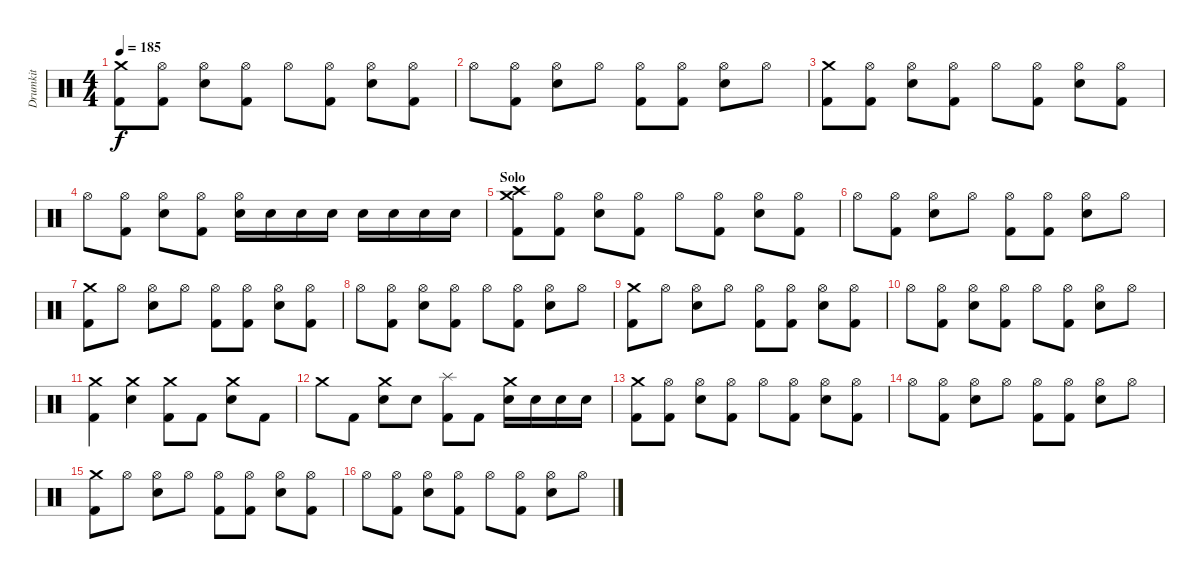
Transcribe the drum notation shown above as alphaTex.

\track ("Drumkit" "Drumkit") {instrument percussion}
\staff {score}
\articulation defaults
\ts (4 4)
\tempo 185
\clef neutral
\ks c
("Crash medium (hit)" "Kick (hit) 2").8{dy f} ("Hi-Hat (open)" "Kick (hit) 2").8 ("Hi-Hat (open)" "Snare (hit) 2").8 ("Hi-Hat (open)" "Kick (hit) 2").8 "Hi-Hat (open)".8 ("Hi-Hat (open)" "Kick (hit) 2").8 ("Hi-Hat (open)" "Snare (hit) 2").8 ("Hi-Hat (open)" "Kick (hit) 2").8 |
"Hi-Hat (open)".8 ("Hi-Hat (open)" "Kick (hit) 2").8 ("Hi-Hat (open)" "Snare (hit) 2").8 "Hi-Hat (open)".8 ("Hi-Hat (open)" "Kick (hit) 2").8 ("Hi-Hat (open)" "Kick (hit) 2").8 ("Hi-Hat (open)" "Snare (hit) 2").8 "Hi-Hat (open)".8 |
("Crash medium (hit)" "Kick (hit) 2").8 ("Hi-Hat (open)" "Kick (hit) 2").8 ("Hi-Hat (open)" "Snare (hit) 2").8 ("Hi-Hat (open)" "Kick (hit) 2").8 "Hi-Hat (open)".8 ("Hi-Hat (open)" "Kick (hit) 2").8 ("Hi-Hat (open)" "Snare (hit) 2").8 ("Hi-Hat (open)" "Kick (hit) 2").8 |
"Hi-Hat (open)".8 ("Hi-Hat (open)" "Kick (hit) 2").8 ("Hi-Hat (open)" "Snare (hit) 2").8 ("Hi-Hat (open)" "Kick (hit) 2").8 ("Hi-Hat (open)" "Snare (hit) 2").16 "Snare (hit) 2".16 "Snare (hit) 2".16 "Snare (hit) 2".16 "Snare (hit) 2".16 "Snare (hit) 2".16 "Snare (hit) 2".16 "Snare (hit) 2".16 |
\section ("" "Solo")
("Crash medium (hit)" "Crash high (hit)" "Kick (hit) 2").8 ("Hi-Hat (open)" "Kick (hit) 2").8 ("Hi-Hat (open)" "Snare (hit) 2").8 ("Hi-Hat (open)" "Kick (hit) 2").8 "Hi-Hat (open)".8 ("Hi-Hat (open)" "Kick (hit) 2").8 ("Hi-Hat (open)" "Snare (hit) 2").8 ("Hi-Hat (open)" "Kick (hit) 2").8 |
"Hi-Hat (open)".8 ("Hi-Hat (open)" "Kick (hit) 2").8 ("Hi-Hat (open)" "Snare (hit) 2").8 "Hi-Hat (open)".8 ("Hi-Hat (open)" "Kick (hit) 2").8 ("Hi-Hat (open)" "Kick (hit) 2").8 ("Hi-Hat (open)" "Snare (hit) 2").8 "Hi-Hat (open)".8 |
("Crash medium (hit)" "Kick (hit) 2").8 "Hi-Hat (open)".8 ("Hi-Hat (open)" "Snare (hit) 2").8 "Hi-Hat (open)".8 ("Hi-Hat (open)" "Kick (hit) 2").8 ("Hi-Hat (open)" "Kick (hit) 2").8 ("Hi-Hat (open)" "Snare (hit) 2").8 ("Hi-Hat (open)" "Kick (hit) 2").8 |
"Hi-Hat (open)".8 ("Hi-Hat (open)" "Kick (hit) 2").8 ("Hi-Hat (open)" "Snare (hit) 2").8 ("Hi-Hat (open)" "Kick (hit) 2").8 "Hi-Hat (open)".8 ("Hi-Hat (open)" "Kick (hit) 2").8 ("Hi-Hat (open)" "Snare (hit) 2").8 "Hi-Hat (open)".8 |
("Crash medium (hit)" "Kick (hit) 2").8 "Hi-Hat (open)".8 ("Hi-Hat (open)" "Snare (hit) 2").8 "Hi-Hat (open)".8 ("Hi-Hat (open)" "Kick (hit) 2").8 ("Hi-Hat (open)" "Kick (hit) 2").8 ("Hi-Hat (open)" "Snare (hit) 2").8 ("Hi-Hat (open)" "Kick (hit) 2").8 |
"Hi-Hat (open)".8 ("Hi-Hat (open)" "Kick (hit) 2").8 ("Hi-Hat (open)" "Snare (hit) 2").8 ("Hi-Hat (open)" "Kick (hit) 2").8 "Hi-Hat (open)".8 ("Hi-Hat (open)" "Kick (hit) 2").8 ("Hi-Hat (open)" "Snare (hit) 2").8 "Hi-Hat (open)".8 |
("Kick (hit) 2" "Crash medium (hit)").4 ("Snare (hit) 2" "Crash medium (hit)").4 ("Kick (hit) 2" "Crash medium (hit)").8 "Kick (hit) 2".8 ("Snare (hit) 2" "Crash medium (hit)").8 "Kick (hit) 2".8 |
"Crash medium (hit)".8 "Kick (hit) 2".8 ("Snare (hit) 2" "Crash medium (hit)").8 "Snare (hit) 2".8 ("Kick (hit) 2" "Splash (hit)").8 "Kick (hit) 2".8 ("Snare (hit) 2" "Crash medium (hit)").16 "Snare (hit) 2".16 "Snare (hit) 2".16 "Snare (hit) 2".16 |
("Crash medium (hit)" "Kick (hit) 2").8 ("Hi-Hat (open)" "Kick (hit) 2").8 ("Hi-Hat (open)" "Snare (hit) 2").8 ("Hi-Hat (open)" "Kick (hit) 2").8 "Hi-Hat (open)".8 ("Hi-Hat (open)" "Kick (hit) 2").8 ("Hi-Hat (open)" "Snare (hit) 2").8 ("Hi-Hat (open)" "Kick (hit) 2").8 |
"Hi-Hat (open)".8 ("Hi-Hat (open)" "Kick (hit) 2").8 ("Hi-Hat (open)" "Snare (hit) 2").8 "Hi-Hat (open)".8 ("Hi-Hat (open)" "Kick (hit) 2").8 ("Hi-Hat (open)" "Kick (hit) 2").8 ("Hi-Hat (open)" "Snare (hit) 2").8 "Hi-Hat (open)".8 |
("Crash medium (hit)" "Kick (hit) 2").8 "Hi-Hat (open)".8 ("Hi-Hat (open)" "Snare (hit) 2").8 "Hi-Hat (open)".8 ("Hi-Hat (open)" "Kick (hit) 2").8 ("Hi-Hat (open)" "Kick (hit) 2").8 ("Hi-Hat (open)" "Snare (hit) 2").8 ("Hi-Hat (open)" "Kick (hit) 2").8 |
"Hi-Hat (open)".8 ("Hi-Hat (open)" "Kick (hit) 2").8 ("Hi-Hat (open)" "Snare (hit) 2").8 ("Hi-Hat (open)" "Kick (hit) 2").8 "Hi-Hat (open)".8 ("Hi-Hat (open)" "Kick (hit) 2").8 ("Hi-Hat (open)" "Snare (hit) 2").8 "Hi-Hat (open)".8
